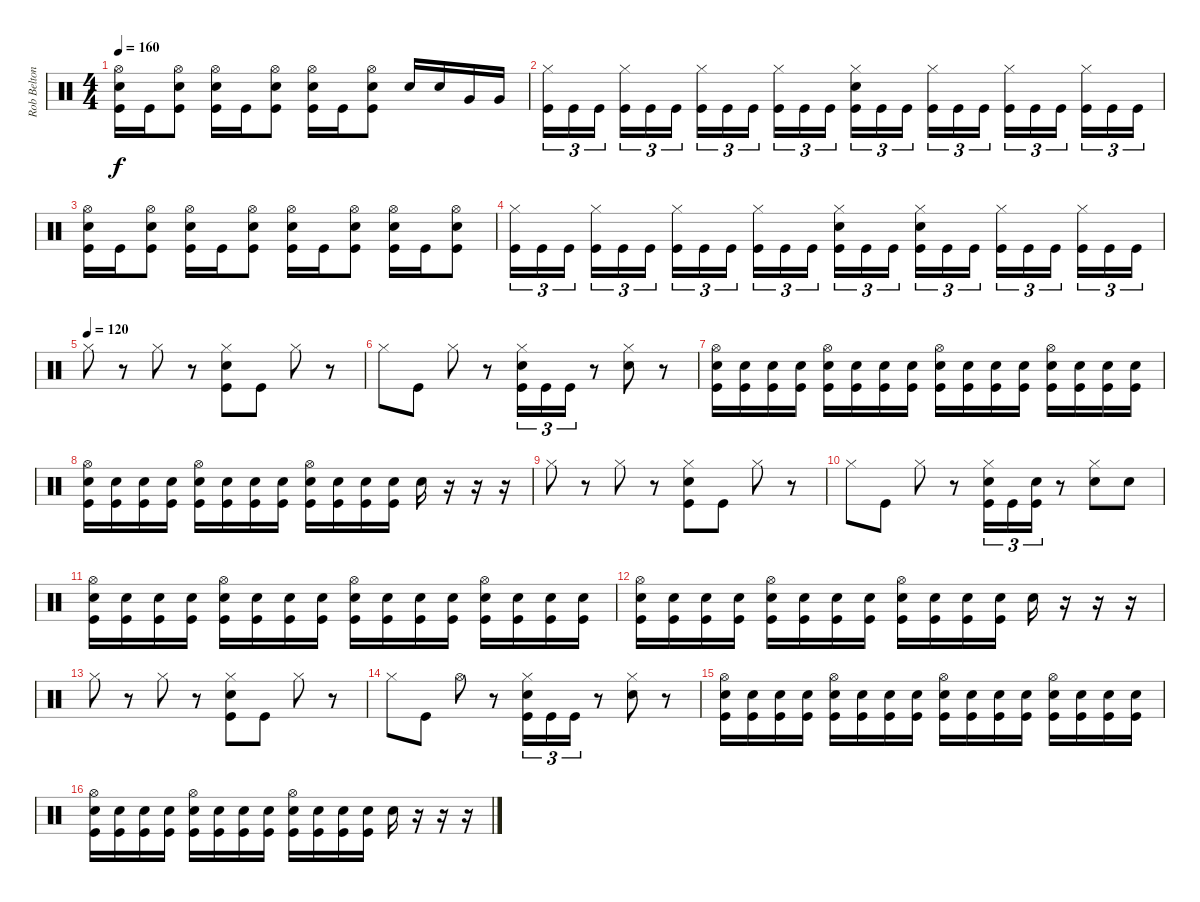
\track ("Rob Belton" "Rob Belton") {instrument percussion}
\staff {score}
\articulation defaults
\ts (4 4)
\tempo 160
\clef neutral
\ks c
("Hi-Hat (open)" "Snare (hit) 2" "Kick (hit)").16{dy f} "Kick (hit)".16 ("Hi-Hat (open)" "Snare (hit) 2" "Kick (hit)").8 ("Hi-Hat (open)" "Snare (hit) 2" "Kick (hit)").16 "Kick (hit)".16 ("Hi-Hat (open)" "Snare (hit) 2" "Kick (hit)").8 ("Hi-Hat (open)" "Snare (hit) 2" "Kick (hit)").16 "Kick (hit)".16 ("Hi-Hat (open)" "Snare (hit) 2" "Kick (hit)").8 "Snare (hit) 2".16 "Snare (hit) 2".16 "Very Low Tom (hit)".16 "Very Low Tom (hit)".16 |
("Hi-Hat (closed)" "Kick (hit)").16{tu (3 2)} "Kick (hit)".16{tu (3 2)} "Kick (hit)".16{tu (3 2) beam splitsecondary} ("Hi-Hat (closed)" "Kick (hit)").16{tu (3 2)} "Kick (hit)".16{tu (3 2)} "Kick (hit)".16{tu (3 2)} ("Hi-Hat (closed)" "Kick (hit)").16{tu (3 2)} "Kick (hit)".16{tu (3 2)} "Kick (hit)".16{tu (3 2) beam splitsecondary} ("Hi-Hat (closed)" "Kick (hit)").16{tu (3 2)} "Kick (hit)".16{tu (3 2)} "Kick (hit)".16{tu (3 2)} ("Hi-Hat (closed)" "Snare (hit) 2" "Kick (hit)").16{tu (3 2)} "Kick (hit)".16{tu (3 2)} "Kick (hit)".16{tu (3 2) beam splitsecondary} ("Hi-Hat (closed)" "Kick (hit)").16{tu (3 2)} "Kick (hit)".16{tu (3 2)} "Kick (hit)".16{tu (3 2)} ("Hi-Hat (closed)" "Kick (hit)").16{tu (3 2)} "Kick (hit)".16{tu (3 2)} "Kick (hit)".16{tu (3 2) beam splitsecondary} ("Hi-Hat (closed)" "Kick (hit)").16{tu (3 2)} "Kick (hit)".16{tu (3 2)} "Kick (hit)".16{tu (3 2)} |
("Hi-Hat (open)" "Snare (hit) 2" "Kick (hit)").16 "Kick (hit)".16 ("Hi-Hat (open)" "Snare (hit) 2" "Kick (hit)").8 ("Hi-Hat (open)" "Snare (hit) 2" "Kick (hit)").16 "Kick (hit)".16 ("Hi-Hat (open)" "Snare (hit) 2" "Kick (hit)").8 ("Hi-Hat (open)" "Snare (hit) 2" "Kick (hit)").16 "Kick (hit)".16 ("Hi-Hat (open)" "Snare (hit) 2" "Kick (hit)").8 ("Hi-Hat (open)" "Snare (hit) 2" "Kick (hit)").16 "Kick (hit)".16 ("Hi-Hat (open)" "Snare (hit) 2" "Kick (hit)").8 |
("Hi-Hat (closed)" "Kick (hit)").16{tu (3 2)} "Kick (hit)".16{tu (3 2)} "Kick (hit)".16{tu (3 2) beam splitsecondary} ("Hi-Hat (closed)" "Kick (hit)").16{tu (3 2)} "Kick (hit)".16{tu (3 2)} "Kick (hit)".16{tu (3 2)} ("Hi-Hat (closed)" "Kick (hit)").16{tu (3 2)} "Kick (hit)".16{tu (3 2)} "Kick (hit)".16{tu (3 2) beam splitsecondary} ("Hi-Hat (closed)" "Kick (hit)").16{tu (3 2)} "Kick (hit)".16{tu (3 2)} "Kick (hit)".16{tu (3 2)} ("Hi-Hat (closed)" "Snare (hit) 2" "Kick (hit)").16{tu (3 2)} "Kick (hit)".16{tu (3 2)} "Kick (hit)".16{tu (3 2) beam splitsecondary} ("Hi-Hat (closed)" "Snare (hit) 2" "Kick (hit)").16{tu (3 2)} "Kick (hit)".16{tu (3 2)} "Kick (hit)".16{tu (3 2)} ("Hi-Hat (closed)" "Kick (hit)").16{tu (3 2)} "Kick (hit)".16{tu (3 2)} "Kick (hit)".16{tu (3 2) beam splitsecondary} ("Hi-Hat (closed)" "Kick (hit)").16{tu (3 2)} "Kick (hit)".16{tu (3 2)} "Kick (hit)".16{tu (3 2)} |
\tempo (120)
"Hi-Hat (closed)".8 r.8 "Hi-Hat (closed)".8 r.8 ("Hi-Hat (closed)" "Snare (hit) 2" "Kick (hit)").8 "Kick (hit)".8 "Hi-Hat (closed)".8 r.8 |
"Hi-Hat (closed)".8 "Kick (hit)".8 "Hi-Hat (closed)".8 r.8 ("Hi-Hat (closed)" "Snare (hit) 2" "Kick (hit)").16{tu (3 2)} "Kick (hit)".16{tu (3 2)} "Kick (hit)".16{tu (3 2)} r.8 ("Hi-Hat (closed)" "Snare (hit) 2").8 r.8 |
("Hi-Hat (open)" "Snare (hit) 2" "Kick (hit)").16 ("Snare (hit) 2" "Kick (hit)").16 ("Snare (hit) 2" "Kick (hit)").16 ("Snare (hit) 2" "Kick (hit)").16 ("Hi-Hat (open)" "Snare (hit) 2" "Kick (hit)").16 ("Snare (hit) 2" "Kick (hit)").16 ("Snare (hit) 2" "Kick (hit)").16 ("Snare (hit) 2" "Kick (hit)").16 ("Hi-Hat (open)" "Snare (hit) 2" "Kick (hit)").16 ("Snare (hit) 2" "Kick (hit)").16 ("Snare (hit) 2" "Kick (hit)").16 ("Snare (hit) 2" "Kick (hit)").16 ("Hi-Hat (open)" "Snare (hit) 2" "Kick (hit)").16 ("Snare (hit) 2" "Kick (hit)").16 ("Snare (hit) 2" "Kick (hit)").16 ("Snare (hit) 2" "Kick (hit)").16 |
("Hi-Hat (open)" "Snare (hit) 2" "Kick (hit)").16 ("Snare (hit) 2" "Kick (hit)").16 ("Snare (hit) 2" "Kick (hit)").16 ("Snare (hit) 2" "Kick (hit)").16 ("Hi-Hat (open)" "Snare (hit) 2" "Kick (hit)").16 ("Snare (hit) 2" "Kick (hit)").16 ("Snare (hit) 2" "Kick (hit)").16 ("Snare (hit) 2" "Kick (hit)").16 ("Hi-Hat (open)" "Snare (hit) 2" "Kick (hit)").16 ("Snare (hit) 2" "Kick (hit)").16 ("Snare (hit) 2" "Kick (hit)").16 ("Snare (hit) 2" "Kick (hit)").16 "Snare (hit) 2".16 r.16 r.16 r.16 |
"Hi-Hat (closed)".8 r.8 "Hi-Hat (closed)".8 r.8 ("Hi-Hat (closed)" "Snare (hit) 2" "Kick (hit)").8 "Kick (hit)".8 "Hi-Hat (closed)".8 r.8 |
"Hi-Hat (closed)".8 "Kick (hit)".8 "Hi-Hat (closed)".8 r.8 ("Hi-Hat (closed)" "Snare (hit) 2" "Kick (hit)").16{tu (3 2)} "Kick (hit)".16{tu (3 2)} ("Snare (hit) 2" "Kick (hit)").16{tu (3 2)} r.8 ("Hi-Hat (closed)" "Snare (hit) 2").8 "Snare (hit) 2".8 |
("Hi-Hat (open)" "Snare (hit) 2" "Kick (hit)").16 ("Snare (hit) 2" "Kick (hit)").16 ("Snare (hit) 2" "Kick (hit)").16 ("Snare (hit) 2" "Kick (hit)").16 ("Hi-Hat (open)" "Snare (hit) 2" "Kick (hit)").16 ("Snare (hit) 2" "Kick (hit)").16 ("Snare (hit) 2" "Kick (hit)").16 ("Snare (hit) 2" "Kick (hit)").16 ("Hi-Hat (open)" "Snare (hit) 2" "Kick (hit)").16 ("Snare (hit) 2" "Kick (hit)").16 ("Snare (hit) 2" "Kick (hit)").16 ("Snare (hit) 2" "Kick (hit)").16 ("Hi-Hat (open)" "Snare (hit) 2" "Kick (hit)").16 ("Snare (hit) 2" "Kick (hit)").16 ("Snare (hit) 2" "Kick (hit)").16 ("Snare (hit) 2" "Kick (hit)").16 |
("Hi-Hat (open)" "Snare (hit) 2" "Kick (hit)").16 ("Snare (hit) 2" "Kick (hit)").16 ("Snare (hit) 2" "Kick (hit)").16 ("Snare (hit) 2" "Kick (hit)").16 ("Hi-Hat (open)" "Snare (hit) 2" "Kick (hit)").16 ("Snare (hit) 2" "Kick (hit)").16 ("Snare (hit) 2" "Kick (hit)").16 ("Snare (hit) 2" "Kick (hit)").16 ("Hi-Hat (open)" "Snare (hit) 2" "Kick (hit)").16 ("Snare (hit) 2" "Kick (hit)").16 ("Snare (hit) 2" "Kick (hit)").16 ("Snare (hit) 2" "Kick (hit)").16 "Snare (hit) 2".16 r.16 r.16 r.16 |
"Hi-Hat (closed)".8 r.8 "Hi-Hat (closed)".8 r.8 ("Hi-Hat (closed)" "Snare (hit) 2" "Kick (hit)").8 "Kick (hit)".8 "Hi-Hat (closed)".8 r.8 |
"Hi-Hat (closed)".8 "Kick (hit)".8 "Hi-Hat (open)".8 r.8 ("Hi-Hat (closed)" "Snare (hit) 2" "Kick (hit)").16{tu (3 2)} "Kick (hit)".16{tu (3 2)} "Kick (hit)".16{tu (3 2)} r.8 ("Hi-Hat (closed)" "Snare (hit) 2").8 r.8 |
("Hi-Hat (open)" "Snare (hit) 2" "Kick (hit)").16 ("Snare (hit) 2" "Kick (hit)").16 ("Snare (hit) 2" "Kick (hit)").16 ("Snare (hit) 2" "Kick (hit)").16 ("Hi-Hat (open)" "Snare (hit) 2" "Kick (hit)").16 ("Snare (hit) 2" "Kick (hit)").16 ("Snare (hit) 2" "Kick (hit)").16 ("Snare (hit) 2" "Kick (hit)").16 ("Hi-Hat (open)" "Snare (hit) 2" "Kick (hit)").16 ("Snare (hit) 2" "Kick (hit)").16 ("Snare (hit) 2" "Kick (hit)").16 ("Snare (hit) 2" "Kick (hit)").16 ("Hi-Hat (open)" "Snare (hit) 2" "Kick (hit)").16 ("Snare (hit) 2" "Kick (hit)").16 ("Snare (hit) 2" "Kick (hit)").16 ("Snare (hit) 2" "Kick (hit)").16 |
("Hi-Hat (open)" "Snare (hit) 2" "Kick (hit)").16 ("Snare (hit) 2" "Kick (hit)").16 ("Snare (hit) 2" "Kick (hit)").16 ("Snare (hit) 2" "Kick (hit)").16 ("Hi-Hat (open)" "Snare (hit) 2" "Kick (hit)").16 ("Snare (hit) 2" "Kick (hit)").16 ("Snare (hit) 2" "Kick (hit)").16 ("Snare (hit) 2" "Kick (hit)").16 ("Hi-Hat (open)" "Snare (hit) 2" "Kick (hit)").16 ("Snare (hit) 2" "Kick (hit)").16 ("Snare (hit) 2" "Kick (hit)").16 ("Snare (hit) 2" "Kick (hit)").16 "Snare (hit) 2".16 r.16 r.16 r.16
